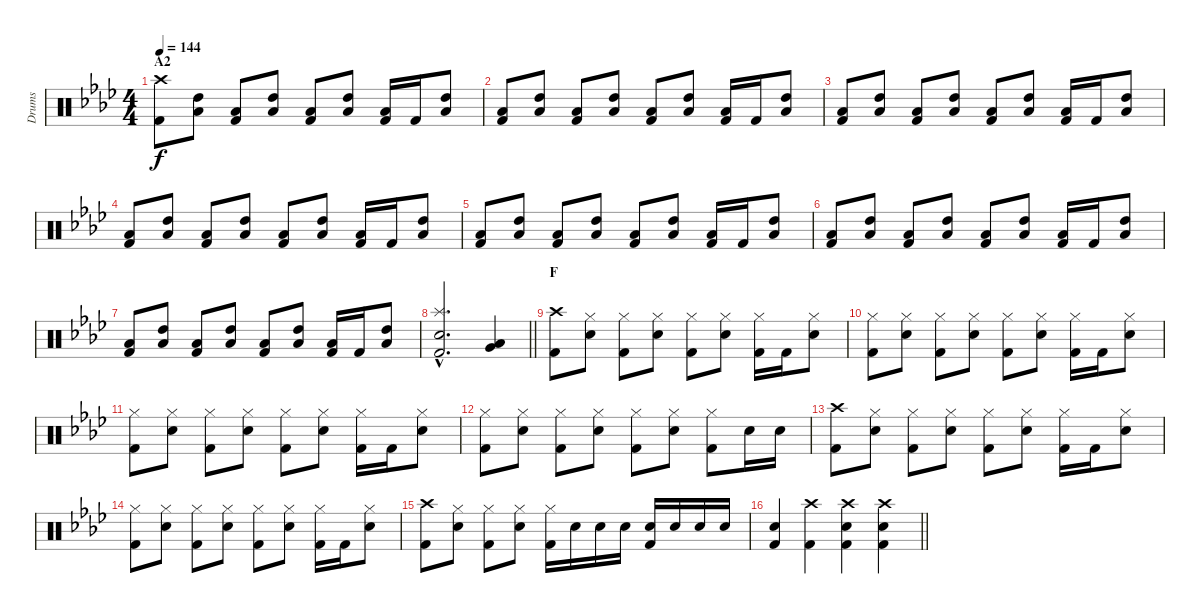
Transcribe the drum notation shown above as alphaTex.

\track ("Drums" "Drums") {instrument percussion}
\staff {score}
\articulation defaults
\ts (4 4)
\section ("" "A2")
\tempo 144
\clef neutral
\ks ab
("Crash high (hit)" "Kick (hit) 2").8{dy f} ("High Tom (hit)" "Low Tom (hit)").8 ("Low Tom (hit)" "Kick (hit) 2").8 ("High Tom (hit)" "Low Tom (hit)").8 ("Low Tom (hit)" "Kick (hit) 2").8 ("High Tom (hit)" "Low Tom (hit)").8 ("Low Tom (hit)" "Kick (hit) 2").16 "Kick (hit) 2".16 ("High Tom (hit)" "Low Tom (hit)").8 |
("Low Tom (hit)" "Kick (hit) 2").8 ("High Tom (hit)" "Low Tom (hit)").8 ("Low Tom (hit)" "Kick (hit) 2").8 ("High Tom (hit)" "Low Tom (hit)").8 ("Low Tom (hit)" "Kick (hit) 2").8 ("High Tom (hit)" "Low Tom (hit)").8 ("Low Tom (hit)" "Kick (hit) 2").16 "Kick (hit) 2".16 ("High Tom (hit)" "Low Tom (hit)").8 |
("Low Tom (hit)" "Kick (hit) 2").8 ("High Tom (hit)" "Low Tom (hit)").8 ("Low Tom (hit)" "Kick (hit) 2").8 ("High Tom (hit)" "Low Tom (hit)").8 ("Low Tom (hit)" "Kick (hit) 2").8 ("High Tom (hit)" "Low Tom (hit)").8 ("Low Tom (hit)" "Kick (hit) 2").16 "Kick (hit) 2".16 ("High Tom (hit)" "Low Tom (hit)").8 |
("Low Tom (hit)" "Kick (hit) 2").8 ("High Tom (hit)" "Low Tom (hit)").8 ("Low Tom (hit)" "Kick (hit) 2").8 ("High Tom (hit)" "Low Tom (hit)").8 ("Low Tom (hit)" "Kick (hit) 2").8 ("High Tom (hit)" "Low Tom (hit)").8 ("Low Tom (hit)" "Kick (hit) 2").16 "Kick (hit) 2".16 ("High Tom (hit)" "Low Tom (hit)").8 |
("Low Tom (hit)" "Kick (hit) 2").8 ("High Tom (hit)" "Low Tom (hit)").8 ("Low Tom (hit)" "Kick (hit) 2").8 ("High Tom (hit)" "Low Tom (hit)").8 ("Low Tom (hit)" "Kick (hit) 2").8 ("High Tom (hit)" "Low Tom (hit)").8 ("Low Tom (hit)" "Kick (hit) 2").16 "Kick (hit) 2".16 ("High Tom (hit)" "Low Tom (hit)").8 |
("Low Tom (hit)" "Kick (hit) 2").8 ("High Tom (hit)" "Low Tom (hit)").8 ("Low Tom (hit)" "Kick (hit) 2").8 ("High Tom (hit)" "Low Tom (hit)").8 ("Low Tom (hit)" "Kick (hit) 2").8 ("High Tom (hit)" "Low Tom (hit)").8 ("Low Tom (hit)" "Kick (hit) 2").16 "Kick (hit) 2".16 ("High Tom (hit)" "Low Tom (hit)").8 |
("Low Tom (hit)" "Kick (hit) 2").8 ("High Tom (hit)" "Low Tom (hit)").8 ("Low Tom (hit)" "Kick (hit) 2").8 ("High Tom (hit)" "Low Tom (hit)").8 ("Low Tom (hit)" "Kick (hit) 2").8 ("High Tom (hit)" "Low Tom (hit)").8 ("Low Tom (hit)" "Kick (hit) 2").16 "Kick (hit) 2".16 ("High Tom (hit)" "Low Tom (hit)").8 |
\barLineRight lightlight
("Splash (hit)"{hac} "Snare (hit) 2"{hac} "Kick (hit) 2"{hac}).2{d} ("Low Tom (hit)" "Very Low Tom (hit)").4 |
\section ("" "F")
("Crash high (hit)" "Kick (hit) 2").8 ("Hi-Hat (closed)" "Snare (hit) 2").8 ("Hi-Hat (closed)" "Kick (hit) 2").8 ("Hi-Hat (closed)" "Snare (hit) 2").8 ("Hi-Hat (closed)" "Kick (hit) 2").8 ("Hi-Hat (closed)" "Snare (hit) 2").8 ("Hi-Hat (closed)" "Kick (hit) 2").16 "Kick (hit) 2".16 ("Hi-Hat (closed)" "Snare (hit) 2").8 |
("Hi-Hat (closed)" "Kick (hit) 2").8 ("Hi-Hat (closed)" "Snare (hit) 2").8 ("Hi-Hat (closed)" "Kick (hit) 2").8 ("Hi-Hat (closed)" "Snare (hit) 2").8 ("Hi-Hat (closed)" "Kick (hit) 2").8 ("Hi-Hat (closed)" "Snare (hit) 2").8 ("Hi-Hat (closed)" "Kick (hit) 2").16 "Kick (hit) 2".16 ("Hi-Hat (closed)" "Snare (hit) 2").8 |
("Hi-Hat (closed)" "Kick (hit) 2").8 ("Hi-Hat (closed)" "Snare (hit) 2").8 ("Hi-Hat (closed)" "Kick (hit) 2").8 ("Hi-Hat (closed)" "Snare (hit) 2").8 ("Hi-Hat (closed)" "Kick (hit) 2").8 ("Hi-Hat (closed)" "Snare (hit) 2").8 ("Hi-Hat (closed)" "Kick (hit) 2").16 "Kick (hit) 2".16 ("Hi-Hat (closed)" "Snare (hit) 2").8 |
("Hi-Hat (closed)" "Kick (hit) 2").8 ("Hi-Hat (closed)" "Snare (hit) 2").8 ("Hi-Hat (closed)" "Kick (hit) 2").8 ("Hi-Hat (closed)" "Snare (hit) 2").8 ("Hi-Hat (closed)" "Kick (hit) 2").8 ("Hi-Hat (closed)" "Snare (hit) 2").8 ("Hi-Hat (closed)" "Kick (hit) 2").8 "Snare (hit) 2".16 "Snare (hit) 2".16 |
("Crash high (hit)" "Kick (hit) 2").8 ("Hi-Hat (closed)" "Snare (hit) 2").8 ("Hi-Hat (closed)" "Kick (hit) 2").8 ("Hi-Hat (closed)" "Snare (hit) 2").8 ("Hi-Hat (closed)" "Kick (hit) 2").8 ("Hi-Hat (closed)" "Snare (hit) 2").8 ("Hi-Hat (closed)" "Kick (hit) 2").16 "Kick (hit) 2".16 ("Hi-Hat (closed)" "Snare (hit) 2").8 |
("Hi-Hat (closed)" "Kick (hit) 2").8 ("Hi-Hat (closed)" "Snare (hit) 2").8 ("Hi-Hat (closed)" "Kick (hit) 2").8 ("Hi-Hat (closed)" "Snare (hit) 2").8 ("Hi-Hat (closed)" "Kick (hit) 2").8 ("Hi-Hat (closed)" "Snare (hit) 2").8 ("Hi-Hat (closed)" "Kick (hit) 2").16 "Kick (hit) 2".16 ("Hi-Hat (closed)" "Snare (hit) 2").8 |
("Crash high (hit)" "Kick (hit) 2").8 ("Hi-Hat (closed)" "Snare (hit) 2").8 ("Hi-Hat (closed)" "Kick (hit) 2").8 ("Hi-Hat (closed)" "Snare (hit) 2").8 ("Hi-Hat (closed)" "Kick (hit) 2").16 "Snare (hit) 2".16 "Snare (hit) 2".16 "Snare (hit) 2".16 ("Snare (hit) 2" "Kick (hit) 2").16 "Snare (hit) 2".16 "Snare (hit) 2".16 "Snare (hit) 2".16 |
\barLineRight lightlight
("Snare (hit) 2" "Kick (hit) 2").4 ("Crash high (hit)" "Kick (hit) 2").4 ("Crash high (hit)" "Snare (hit) 2" "Kick (hit) 2").4 ("Crash high (hit)" "Snare (hit) 2" "Kick (hit) 2").4
